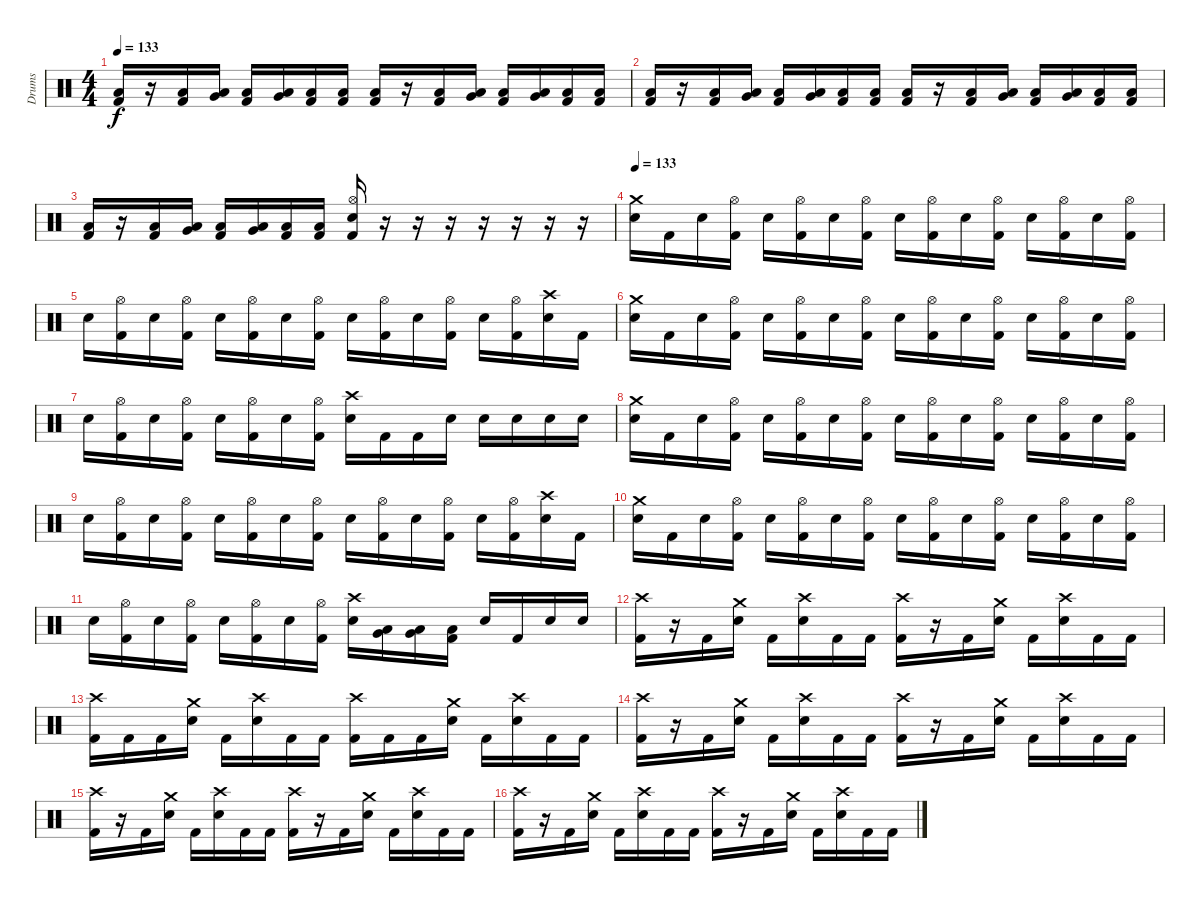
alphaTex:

\track ("Drums" "Drums") {instrument percussion}
\staff {score}
\articulation defaults
\ts (4 4)
\tempo 133
\clef neutral
\ks c
("Low Floor Tom (hit)" "Kick (hit) 2").16{dy f} r.16 ("Low Floor Tom (hit)" "Kick (hit) 2").16 ("Low Tom (hit)" "Very Low Tom (hit)").16 ("Low Floor Tom (hit)" "Kick (hit) 2").16 ("Low Tom (hit)" "Very Low Tom (hit)").16 ("Low Floor Tom (hit)" "Kick (hit) 2").16 ("Low Floor Tom (hit)" "Kick (hit) 2").16 ("Low Floor Tom (hit)" "Kick (hit) 2").16 r.16 ("Low Floor Tom (hit)" "Kick (hit) 2").16 ("Low Tom (hit)" "Very Low Tom (hit)").16 ("Low Floor Tom (hit)" "Kick (hit) 2").16 ("Low Tom (hit)" "Very Low Tom (hit)").16 ("Low Floor Tom (hit)" "Kick (hit) 2").16 ("Low Floor Tom (hit)" "Kick (hit) 2").16 |
("Low Floor Tom (hit)" "Kick (hit) 2").16 r.16 ("Low Floor Tom (hit)" "Kick (hit) 2").16 ("Low Tom (hit)" "Very Low Tom (hit)").16 ("Low Floor Tom (hit)" "Kick (hit) 2").16 ("Low Tom (hit)" "Very Low Tom (hit)").16 ("Low Floor Tom (hit)" "Kick (hit) 2").16 ("Low Floor Tom (hit)" "Kick (hit) 2").16 ("Low Floor Tom (hit)" "Kick (hit) 2").16 r.16 ("Low Floor Tom (hit)" "Kick (hit) 2").16 ("Low Tom (hit)" "Very Low Tom (hit)").16 ("Low Floor Tom (hit)" "Kick (hit) 2").16 ("Low Tom (hit)" "Very Low Tom (hit)").16 ("Low Floor Tom (hit)" "Kick (hit) 2").16 ("Low Floor Tom (hit)" "Kick (hit) 2").16 |
("Low Floor Tom (hit)" "Kick (hit) 2").16 r.16 ("Low Floor Tom (hit)" "Kick (hit) 2").16 ("Low Tom (hit)" "Very Low Tom (hit)").16 ("Low Floor Tom (hit)" "Kick (hit) 2").16 ("Low Tom (hit)" "Very Low Tom (hit)").16 ("Low Floor Tom (hit)" "Kick (hit) 2").16 ("Low Floor Tom (hit)" "Kick (hit) 2").16 ("Hi-Hat (open)" "Electric Snare (hit)" "Kick (hit) 2").16 r.16 r.16 r.16 r.16 r.16 r.16 r.16 |
\tempo 133
("Crash medium (hit)" "Electric Snare (hit)").16 "Kick (hit) 2".16 "Electric Snare (hit)".16 ("Hi-Hat (open)" "Kick (hit) 2").16 "Electric Snare (hit)".16 ("Hi-Hat (open)" "Kick (hit) 2").16 "Electric Snare (hit)".16 ("Hi-Hat (open)" "Kick (hit) 2").16 "Electric Snare (hit)".16 ("Hi-Hat (open)" "Kick (hit) 2").16 "Electric Snare (hit)".16 ("Hi-Hat (open)" "Kick (hit) 2").16 "Electric Snare (hit)".16 ("Hi-Hat (open)" "Kick (hit) 2").16 "Electric Snare (hit)".16 ("Hi-Hat (open)" "Kick (hit) 2").16 |
"Electric Snare (hit)".16 ("Hi-Hat (open)" "Kick (hit) 2").16 "Electric Snare (hit)".16 ("Hi-Hat (open)" "Kick (hit) 2").16 "Electric Snare (hit)".16 ("Hi-Hat (open)" "Kick (hit) 2").16 "Electric Snare (hit)".16 ("Hi-Hat (open)" "Kick (hit) 2").16 "Electric Snare (hit)".16 ("Hi-Hat (open)" "Kick (hit) 2").16 "Electric Snare (hit)".16 ("Hi-Hat (open)" "Kick (hit) 2").16 "Electric Snare (hit)".16 ("Hi-Hat (open)" "Kick (hit) 2").16 ("Crash high (hit)" "Electric Snare (hit)").16 "Kick (hit) 2".16 |
("Crash medium (hit)" "Electric Snare (hit)").16 "Kick (hit) 2".16 "Electric Snare (hit)".16 ("Hi-Hat (open)" "Kick (hit) 2").16 "Electric Snare (hit)".16 ("Hi-Hat (open)" "Kick (hit) 2").16 "Electric Snare (hit)".16 ("Hi-Hat (open)" "Kick (hit) 2").16 "Electric Snare (hit)".16 ("Hi-Hat (open)" "Kick (hit) 2").16 "Electric Snare (hit)".16 ("Hi-Hat (open)" "Kick (hit) 2").16 "Electric Snare (hit)".16 ("Hi-Hat (open)" "Kick (hit) 2").16 "Electric Snare (hit)".16 ("Hi-Hat (open)" "Kick (hit) 2").16 |
"Electric Snare (hit)".16 ("Hi-Hat (open)" "Kick (hit) 2").16 "Electric Snare (hit)".16 ("Hi-Hat (open)" "Kick (hit) 2").16 "Electric Snare (hit)".16 ("Hi-Hat (open)" "Kick (hit) 2").16 "Electric Snare (hit)".16 ("Hi-Hat (open)" "Kick (hit) 2").16 ("Crash high (hit)" "Electric Snare (hit)").16 "Kick (hit) 2".16 "Kick (hit) 2".16 "Electric Snare (hit)".16 "Electric Snare (hit)".16 "Electric Snare (hit)".16 "Electric Snare (hit)".16 "Electric Snare (hit)".16 |
("Crash medium (hit)" "Electric Snare (hit)").16 "Kick (hit) 2".16 "Electric Snare (hit)".16 ("Hi-Hat (open)" "Kick (hit) 2").16 "Electric Snare (hit)".16 ("Hi-Hat (open)" "Kick (hit) 2").16 "Electric Snare (hit)".16 ("Hi-Hat (open)" "Kick (hit) 2").16 "Electric Snare (hit)".16 ("Hi-Hat (open)" "Kick (hit) 2").16 "Electric Snare (hit)".16 ("Hi-Hat (open)" "Kick (hit) 2").16 "Electric Snare (hit)".16 ("Hi-Hat (open)" "Kick (hit) 2").16 "Electric Snare (hit)".16 ("Hi-Hat (open)" "Kick (hit) 2").16 |
"Electric Snare (hit)".16 ("Hi-Hat (open)" "Kick (hit) 2").16 "Electric Snare (hit)".16 ("Hi-Hat (open)" "Kick (hit) 2").16 "Electric Snare (hit)".16 ("Hi-Hat (open)" "Kick (hit) 2").16 "Electric Snare (hit)".16 ("Hi-Hat (open)" "Kick (hit) 2").16 "Electric Snare (hit)".16 ("Hi-Hat (open)" "Kick (hit) 2").16 "Electric Snare (hit)".16 ("Hi-Hat (open)" "Kick (hit) 2").16 "Electric Snare (hit)".16 ("Hi-Hat (open)" "Kick (hit) 2").16 ("Crash high (hit)" "Electric Snare (hit)").16 "Kick (hit) 2".16 |
("Crash medium (hit)" "Electric Snare (hit)").16 "Kick (hit) 2".16 "Electric Snare (hit)".16 ("Hi-Hat (open)" "Kick (hit) 2").16 "Electric Snare (hit)".16 ("Hi-Hat (open)" "Kick (hit) 2").16 "Electric Snare (hit)".16 ("Hi-Hat (open)" "Kick (hit) 2").16 "Electric Snare (hit)".16 ("Hi-Hat (open)" "Kick (hit) 2").16 "Electric Snare (hit)".16 ("Hi-Hat (open)" "Kick (hit) 2").16 "Electric Snare (hit)".16 ("Hi-Hat (open)" "Kick (hit) 2").16 "Electric Snare (hit)".16 ("Hi-Hat (open)" "Kick (hit) 2").16 |
"Electric Snare (hit)".16 ("Hi-Hat (open)" "Kick (hit) 2").16 "Electric Snare (hit)".16 ("Hi-Hat (open)" "Kick (hit) 2").16 "Electric Snare (hit)".16 ("Hi-Hat (open)" "Kick (hit) 2").16 "Electric Snare (hit)".16 ("Hi-Hat (open)" "Kick (hit) 2").16 ("Crash high (hit)" "Electric Snare (hit)").16 ("Very Low Tom (hit)" "Low Tom (hit)").16 ("Low Floor Tom (hit)" "Very Low Tom (hit)").16 ("Low Floor Tom (hit)" "Kick (hit) 2").16 "Electric Snare (hit)".16 "Kick (hit) 2".16 "Electric Snare (hit)".16 "Electric Snare (hit)".16 |
("Crash high (hit)" "Kick (hit) 2").16 r.16 "Kick (hit) 2".16 ("Crash medium (hit)" "Electric Snare (hit)").16 "Kick (hit) 2".16 ("Crash high (hit)" "Electric Snare (hit)").16 "Kick (hit) 2".16 "Kick (hit) 2".16 ("Crash high (hit)" "Kick (hit) 2").16 r.16 "Kick (hit) 2".16 ("Crash medium (hit)" "Electric Snare (hit)").16 "Kick (hit) 2".16 ("Crash high (hit)" "Electric Snare (hit)").16 "Kick (hit) 2".16 "Kick (hit) 2".16 |
("Crash high (hit)" "Kick (hit) 2").16 "Kick (hit) 2".16 "Kick (hit) 2".16 ("Crash medium (hit)" "Electric Snare (hit)").16 "Kick (hit) 2".16 ("Crash high (hit)" "Electric Snare (hit)").16 "Kick (hit) 2".16 "Kick (hit) 2".16 ("Crash high (hit)" "Kick (hit) 2").16 "Kick (hit) 2".16 "Kick (hit) 2".16 ("Crash medium (hit)" "Electric Snare (hit)").16 "Kick (hit) 2".16 ("Crash high (hit)" "Electric Snare (hit)").16 "Kick (hit) 2".16 "Kick (hit) 2".16 |
("Crash high (hit)" "Kick (hit) 2").16 r.16 "Kick (hit) 2".16 ("Crash medium (hit)" "Electric Snare (hit)").16 "Kick (hit) 2".16 ("Crash high (hit)" "Electric Snare (hit)").16 "Kick (hit) 2".16 "Kick (hit) 2".16 ("Crash high (hit)" "Kick (hit) 2").16 r.16 "Kick (hit) 2".16 ("Crash medium (hit)" "Electric Snare (hit)").16 "Kick (hit) 2".16 ("Crash high (hit)" "Electric Snare (hit)").16 "Kick (hit) 2".16 "Kick (hit) 2".16 |
("Crash high (hit)" "Kick (hit) 2").16 r.16 "Kick (hit) 2".16 ("Crash medium (hit)" "Electric Snare (hit)").16 "Kick (hit) 2".16 ("Crash high (hit)" "Electric Snare (hit)").16 "Kick (hit) 2".16 "Kick (hit) 2".16 ("Crash high (hit)" "Kick (hit) 2").16 r.16 "Kick (hit) 2".16 ("Crash medium (hit)" "Electric Snare (hit)").16 "Kick (hit) 2".16 ("Crash high (hit)" "Electric Snare (hit)").16 "Kick (hit) 2".16 "Kick (hit) 2".16 |
("Crash high (hit)" "Kick (hit) 2").16 r.16 "Kick (hit) 2".16 ("Crash medium (hit)" "Electric Snare (hit)").16 "Kick (hit) 2".16 ("Crash high (hit)" "Electric Snare (hit)").16 "Kick (hit) 2".16 "Kick (hit) 2".16 ("Crash high (hit)" "Kick (hit) 2").16 r.16 "Kick (hit) 2".16 ("Crash medium (hit)" "Electric Snare (hit)").16 "Kick (hit) 2".16 ("Crash high (hit)" "Electric Snare (hit)").16 "Kick (hit) 2".16 "Kick (hit) 2".16
